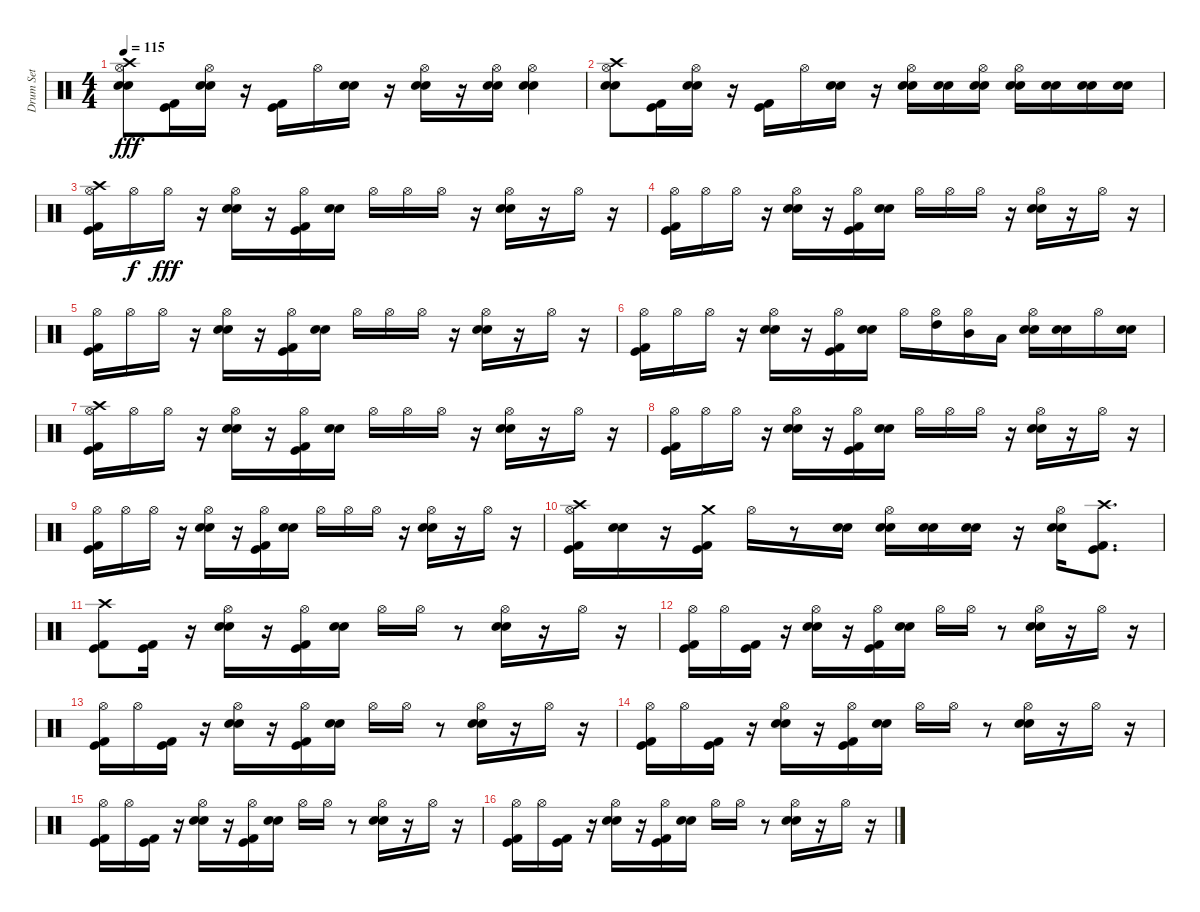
\track ("Drum Set" "Drum Set") {instrument percussion}
\staff {score}
\articulation defaults
\ts (4 4)
\tempo 115
\clef neutral
\ks c
("Crash high (hit)" "Snare (hit) 2" "Electric Snare (hit)" "Hi-Hat (open)").8{dy fff} ("Kick (hit) 2" "Kick (hit)").16 ("Electric Snare (hit)" "Snare (hit) 2" "Hi-Hat (open)").16 r.16 ("Kick (hit)" "Kick (hit) 2").16 "Hi-Hat (open)".16 ("Electric Snare (hit)" "Snare (hit) 2").16 r.16 ("Electric Snare (hit)" "Snare (hit) 2" "Hi-Hat (open)").16 r.16 ("Electric Snare (hit)" "Snare (hit) 2" "Hi-Hat (open)").16 ("Electric Snare (hit)" "Snare (hit) 2" "Hi-Hat (open)").4 |
("Hi-Hat (open)" "Crash high (hit)" "Snare (hit) 2" "Electric Snare (hit)").8 ("Kick (hit) 2" "Kick (hit)").16 ("Hi-Hat (open)" "Electric Snare (hit)" "Snare (hit) 2").16 r.16 ("Kick (hit)" "Kick (hit) 2").16 "Hi-Hat (open)".16 ("Electric Snare (hit)" "Snare (hit) 2").16 r.16 ("Hi-Hat (open)" "Snare (hit) 2" "Electric Snare (hit)").16 ("Electric Snare (hit)" "Snare (hit) 2").16 ("Hi-Hat (open)" "Snare (hit) 2" "Electric Snare (hit)").16 ("Hi-Hat (open)" "Snare (hit) 2" "Electric Snare (hit)").16 ("Electric Snare (hit)" "Snare (hit) 2").16 ("Snare (hit) 2" "Electric Snare (hit)").16 ("Electric Snare (hit)" "Snare (hit) 2").16 |
("Crash high (hit)" "Hi-Hat (open)" "Kick (hit) 2" "Kick (hit)").16 "Hi-Hat (open)".16{dy f} "Hi-Hat (open)".16{dy fff} r.16 ("Hi-Hat (open)" "Electric Snare (hit)" "Snare (hit) 2").16 r.16 ("Hi-Hat (open)" "Kick (hit) 2" "Kick (hit)").16 ("Electric Snare (hit)" "Snare (hit) 2").16 "Hi-Hat (open)".16 "Hi-Hat (open)".16 "Hi-Hat (open)".16 r.16 ("Hi-Hat (open)" "Electric Snare (hit)" "Snare (hit) 2").16 r.16 "Hi-Hat (open)".16 r.16 |
("Hi-Hat (open)" "Kick (hit) 2" "Kick (hit)").16 "Hi-Hat (open)".16 "Hi-Hat (open)".16 r.16 ("Hi-Hat (open)" "Electric Snare (hit)" "Snare (hit) 2").16 r.16 ("Hi-Hat (open)" "Kick (hit) 2" "Kick (hit)").16 ("Electric Snare (hit)" "Snare (hit) 2").16 "Hi-Hat (open)".16 "Hi-Hat (open)".16 "Hi-Hat (open)".16 r.16 ("Hi-Hat (open)" "Electric Snare (hit)" "Snare (hit) 2").16 r.16 "Hi-Hat (open)".16 r.16 |
("Hi-Hat (open)" "Kick (hit) 2" "Kick (hit)").16 "Hi-Hat (open)".16 "Hi-Hat (open)".16 r.16 ("Hi-Hat (open)" "Electric Snare (hit)" "Snare (hit) 2").16 r.16 ("Hi-Hat (open)" "Kick (hit) 2" "Kick (hit)").16 ("Electric Snare (hit)" "Snare (hit) 2").16 "Hi-Hat (open)".16 "Hi-Hat (open)".16 "Hi-Hat (open)".16 r.16 ("Hi-Hat (open)" "Electric Snare (hit)" "Snare (hit) 2").16 r.16 "Hi-Hat (open)".16 r.16 |
("Hi-Hat (open)" "Kick (hit) 2" "Kick (hit)").16 "Hi-Hat (open)".16 "Hi-Hat (open)".16 r.16 ("Hi-Hat (open)" "Electric Snare (hit)" "Snare (hit) 2").16 r.16 ("Hi-Hat (open)" "Kick (hit) 2" "Kick (hit)").16 ("Electric Snare (hit)" "Snare (hit) 2").16 "Hi-Hat (open)".16 ("High Tom (hit)" "Hi-Hat (open)").16 ("Hi-Hat (open)" "Mid Tom (hit)").16 "Low Tom (hit)".16 ("Hi-Hat (open)" "Electric Snare (hit)" "Snare (hit) 2").16 ("Snare (hit) 2" "Electric Snare (hit)").16 "Hi-Hat (open)".16 ("Electric Snare (hit)" "Snare (hit) 2").16 |
("Crash high (hit)" "Hi-Hat (open)" "Kick (hit) 2" "Kick (hit)").16 "Hi-Hat (open)".16 "Hi-Hat (open)".16 r.16 ("Hi-Hat (open)" "Electric Snare (hit)" "Snare (hit) 2").16 r.16 ("Hi-Hat (open)" "Kick (hit) 2" "Kick (hit)").16 ("Electric Snare (hit)" "Snare (hit) 2").16 "Hi-Hat (open)".16 "Hi-Hat (open)".16 "Hi-Hat (open)".16 r.16 ("Hi-Hat (open)" "Electric Snare (hit)" "Snare (hit) 2").16 r.16 "Hi-Hat (open)".16 r.16 |
("Kick (hit) 2" "Kick (hit)" "Hi-Hat (open)").16 "Hi-Hat (open)".16 "Hi-Hat (open)".16 r.16 ("Hi-Hat (open)" "Snare (hit) 2" "Electric Snare (hit)").16 r.16 ("Kick (hit) 2" "Hi-Hat (open)" "Kick (hit)").16 ("Snare (hit) 2" "Electric Snare (hit)").16 "Hi-Hat (open)".16 "Hi-Hat (open)".16 "Hi-Hat (open)".16 r.16 ("Electric Snare (hit)" "Snare (hit) 2" "Hi-Hat (open)").16 r.16 "Hi-Hat (open)".16 r.16 |
("Hi-Hat (open)" "Kick (hit) 2" "Kick (hit)").16 "Hi-Hat (open)".16 "Hi-Hat (open)".16 r.16 ("Hi-Hat (open)" "Electric Snare (hit)" "Snare (hit) 2").16 r.16 ("Hi-Hat (open)" "Kick (hit) 2" "Kick (hit)").16 ("Electric Snare (hit)" "Snare (hit) 2").16 "Hi-Hat (open)".16 "Hi-Hat (open)".16 "Hi-Hat (open)".16 r.16 ("Hi-Hat (open)" "Electric Snare (hit)" "Snare (hit) 2").16 r.16 "Hi-Hat (open)".16 r.16 |
("Hi-Hat (open)" "Crash high (hit)" "Kick (hit) 2" "Kick (hit)").16 ("Electric Snare (hit)" "Snare (hit) 2").16 r.16 ("Crash medium (hit)" "Kick (hit) 2" "Kick (hit)").16 "Hi-Hat (open)".16 r.8 ("Electric Snare (hit)" "Snare (hit) 2").16 ("Hi-Hat (open)" "Electric Snare (hit)" "Snare (hit) 2").16 ("Snare (hit) 2" "Electric Snare (hit)").16 ("Snare (hit) 2" "Electric Snare (hit)").16 r.16 ("Hi-Hat (open)" "Snare (hit) 2" "Electric Snare (hit)").16 ("Crash high (hit)" "Kick (hit)" "Kick (hit) 2").8{d} |
("Crash high (hit)" "Kick (hit)" "Kick (hit) 2").8 ("Kick (hit)" "Kick (hit) 2").16 r.16 ("Hi-Hat (open)" "Electric Snare (hit)" "Snare (hit) 2").16 r.16 ("Hi-Hat (open)" "Kick (hit) 2" "Kick (hit)").16 ("Electric Snare (hit)" "Snare (hit) 2").16 "Hi-Hat (open)".16 "Hi-Hat (open)".16 r.8 ("Hi-Hat (open)" "Electric Snare (hit)" "Snare (hit) 2").16 r.16 "Hi-Hat (open)".16 r.16 |
("Hi-Hat (open)" "Kick (hit)" "Kick (hit) 2").16 "Hi-Hat (open)".16 ("Kick (hit)" "Kick (hit) 2").16 r.16 ("Hi-Hat (open)" "Electric Snare (hit)" "Snare (hit) 2").16 r.16 ("Hi-Hat (open)" "Kick (hit) 2" "Kick (hit)").16 ("Electric Snare (hit)" "Snare (hit) 2").16 "Hi-Hat (open)".16 "Hi-Hat (open)".16 r.8 ("Hi-Hat (open)" "Electric Snare (hit)" "Snare (hit) 2").16 r.16 "Hi-Hat (open)".16 r.16 |
("Hi-Hat (open)" "Kick (hit)" "Kick (hit) 2").16 "Hi-Hat (open)".16 ("Kick (hit)" "Kick (hit) 2").16 r.16 ("Hi-Hat (open)" "Electric Snare (hit)" "Snare (hit) 2").16 r.16 ("Hi-Hat (open)" "Kick (hit) 2" "Kick (hit)").16 ("Electric Snare (hit)" "Snare (hit) 2").16 "Hi-Hat (open)".16 "Hi-Hat (open)".16 r.8 ("Hi-Hat (open)" "Electric Snare (hit)" "Snare (hit) 2").16 r.16 "Hi-Hat (open)".16 r.16 |
("Hi-Hat (open)" "Kick (hit)" "Kick (hit) 2").16 "Hi-Hat (open)".16 ("Kick (hit)" "Kick (hit) 2").16 r.16 ("Hi-Hat (open)" "Electric Snare (hit)" "Snare (hit) 2").16 r.16 ("Hi-Hat (open)" "Kick (hit) 2" "Kick (hit)").16 ("Electric Snare (hit)" "Snare (hit) 2").16 "Hi-Hat (open)".16 "Hi-Hat (open)".16 r.8 ("Hi-Hat (open)" "Electric Snare (hit)" "Snare (hit) 2").16 r.16 "Hi-Hat (open)".16 r.16 |
("Hi-Hat (open)" "Kick (hit)" "Kick (hit) 2").16 "Hi-Hat (open)".16 ("Kick (hit)" "Kick (hit) 2").16 r.16 ("Hi-Hat (open)" "Electric Snare (hit)" "Snare (hit) 2").16 r.16 ("Hi-Hat (open)" "Kick (hit) 2" "Kick (hit)").16 ("Electric Snare (hit)" "Snare (hit) 2").16 "Hi-Hat (open)".16 "Hi-Hat (open)".16 r.8 ("Hi-Hat (open)" "Electric Snare (hit)" "Snare (hit) 2").16 r.16 "Hi-Hat (open)".16 r.16 |
("Hi-Hat (open)" "Kick (hit)" "Kick (hit) 2").16 "Hi-Hat (open)".16 ("Kick (hit)" "Kick (hit) 2").16 r.16 ("Hi-Hat (open)" "Electric Snare (hit)" "Snare (hit) 2").16 r.16 ("Hi-Hat (open)" "Kick (hit) 2" "Kick (hit)").16 ("Electric Snare (hit)" "Snare (hit) 2").16 "Hi-Hat (open)".16 "Hi-Hat (open)".16 r.8 ("Hi-Hat (open)" "Electric Snare (hit)" "Snare (hit) 2").16 r.16 "Hi-Hat (open)".16 r.16
